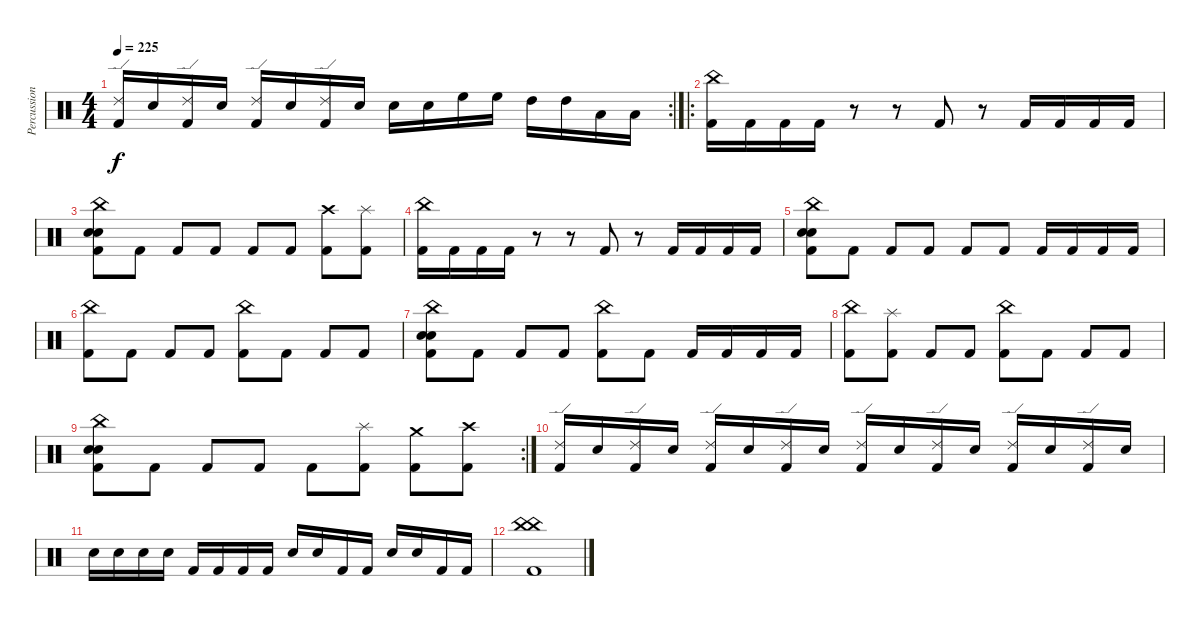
\track ("Percussion" "Percussion") {instrument percussion}
\staff {score}
\articulation defaults
\rc 2
\ts (4 4)
\tempo 225
\clef neutral
\ks c
("Ride (edge) 2" "Kick (hit) 2").16{dy f} "Electric Snare (hit)".16 ("Ride (edge) 2" "Kick (hit) 2").16 "Electric Snare (hit)".16 ("Ride (edge) 2" "Kick (hit) 2").16 "Electric Snare (hit)".16 ("Ride (edge) 2" "Kick (hit) 2").16 "Electric Snare (hit)".16 "Electric Snare (hit)".16 "Electric Snare (hit)".16 "High Floor Tom (hit)".16 "High Floor Tom (hit)".16 "High Tom (hit)".16 "High Tom (hit)".16 "Low Tom (hit)".16 "Low Floor Tom (hit)".16 |
\ro
("China (hit)" "Kick (hit) 2").16 "Kick (hit) 2".16 "Kick (hit) 2".16 "Kick (hit) 2".16 r.8 r.8 "Kick (hit) 2".8 r.8 "Kick (hit) 2".16 "Kick (hit) 2".16 "Kick (hit) 2".16 "Kick (hit) 2".16 |
("China (hit)" "Kick (hit) 2" "Electric Snare (hit)" "Electric Snare (hit)").8 "Kick (hit) 2".8 "Kick (hit) 2".8 "Kick (hit) 2".8 "Kick (hit) 2".8 "Kick (hit) 2".8 ("Crash high (hit)" "Kick (hit) 2").8 ("Splash (hit)" "Kick (hit) 2").8 |
("China (hit)" "Kick (hit) 2").16 "Kick (hit) 2".16 "Kick (hit) 2".16 "Kick (hit) 2".16 r.8 r.8 "Kick (hit) 2".8 r.8 "Kick (hit) 2".16 "Kick (hit) 2".16 "Kick (hit) 2".16 "Kick (hit) 2".16 |
("China (hit)" "Kick (hit) 2" "Electric Snare (hit)" "Electric Snare (hit)").8 "Kick (hit) 2".8 "Kick (hit) 2".8 "Kick (hit) 2".8 "Kick (hit) 2".8 "Kick (hit) 2".8 "Kick (hit) 2".16 "Kick (hit) 2".16 "Kick (hit) 2".16 "Kick (hit) 2".16 |
("China (hit)" "Kick (hit) 2").8 "Kick (hit) 2".8 "Kick (hit) 2".8 "Kick (hit) 2".8 ("China (hit)" "Kick (hit) 2").8 "Kick (hit) 2".8 "Kick (hit) 2".8 "Kick (hit) 2".8 |
("China (hit)" "Kick (hit) 2" "Electric Snare (hit)" "Electric Snare (hit)").8 "Kick (hit) 2".8 "Kick (hit) 2".8 "Kick (hit) 2".8 ("China (hit)" "Kick (hit) 2").8 "Kick (hit) 2".8 "Kick (hit) 2".16 "Kick (hit) 2".16 "Kick (hit) 2".16 "Kick (hit) 2".16 |
("China (hit)" "Kick (hit) 2").8 ("Splash (hit)" "Kick (hit) 2").8 "Kick (hit) 2".8 "Kick (hit) 2".8 ("China (hit)" "Kick (hit) 2").8 "Kick (hit) 2".8 "Kick (hit) 2".8 "Kick (hit) 2".8 |
\rc 2
("China (hit)" "Kick (hit) 2" "Electric Snare (hit)" "Electric Snare (hit)").8 "Kick (hit) 2".8 "Kick (hit) 2".8 "Kick (hit) 2".8 "Kick (hit) 2".8 ("Splash (hit)" "Kick (hit) 2").8 ("Crash medium (hit)" "Kick (hit) 2").8 ("Crash high (hit)" "Kick (hit) 2").8 |
("Ride (edge) 2" "Kick (hit) 2").16 "Electric Snare (hit)".16 ("Ride (edge) 2" "Kick (hit) 2").16 "Electric Snare (hit)".16 ("Ride (edge) 2" "Kick (hit) 2").16 "Electric Snare (hit)".16 ("Ride (edge) 2" "Kick (hit) 2").16 "Electric Snare (hit)".16 ("Ride (edge) 2" "Kick (hit) 2").16 "Electric Snare (hit)".16 ("Ride (edge) 2" "Kick (hit) 2").16 "Electric Snare (hit)".16 ("Ride (edge) 2" "Kick (hit) 2").16 "Electric Snare (hit)".16 ("Ride (edge) 2" "Kick (hit) 2").16 "Electric Snare (hit)".16 |
"Electric Snare (hit)".16 "Electric Snare (hit)".16 "Electric Snare (hit)".16 "Electric Snare (hit)".16 "Kick (hit) 2".16 "Kick (hit) 2".16 "Kick (hit) 2".16 "Kick (hit) 2".16 "Electric Snare (hit)".16 "Electric Snare (hit)".16 "Kick (hit) 2".16 "Kick (hit) 2".16 "Electric Snare (hit)".16 "Electric Snare (hit)".16 "Kick (hit) 2".16 "Kick (hit) 2".16 |
("China (hit)" "Kick (hit) 2" "China (hit)").1
